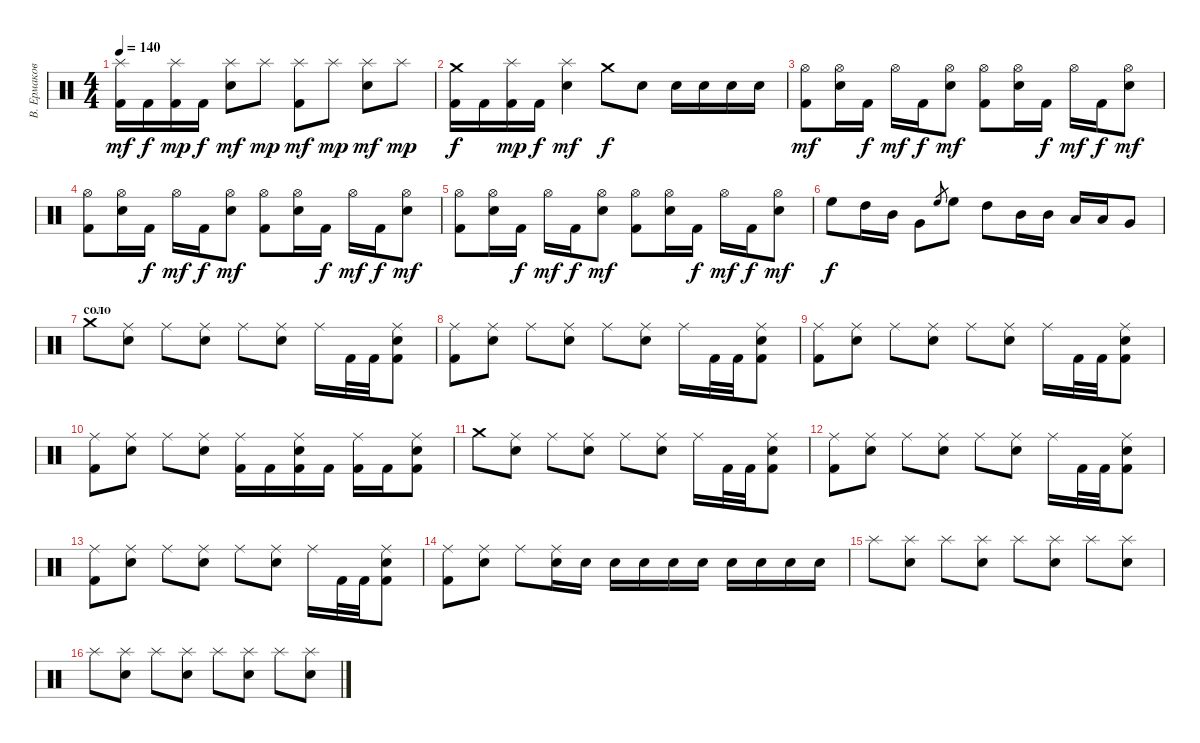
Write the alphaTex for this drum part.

\track ("В. Ермаков" "В. Ермаков") {instrument percussion}
\staff {score}
\articulation defaults
\ts (4 4)
\tempo 140
\clef neutral
\ks c
("Kick (hit) 2" "Splash (hit)").16{dy mf} "Kick (hit) 2".16{dy f} ("Kick (hit) 2" "Splash (hit)").16{dy mp} "Kick (hit) 2".16{dy f} ("Electric Snare (hit)" "Splash (hit)").8{dy mf} "Splash (hit)".8{dy mp} ("Kick (hit) 2" "Splash (hit)").8{dy mf} "Splash (hit)".8{dy mp} ("Electric Snare (hit)" "Splash (hit)").8{dy mf} "Splash (hit)".8{dy mp} |
("Kick (hit) 2" "Crash medium (hit)").16{dy f} "Kick (hit) 2".16 ("Kick (hit) 2" "Splash (hit)").16{dy mp} "Kick (hit) 2".16{dy f} ("Electric Snare (hit)" "Splash (hit)").4{dy mf} "Crash medium (hit)".8{dy f} "Electric Snare (hit)".8 "Electric Snare (hit)".16 "Electric Snare (hit)".16 "Electric Snare (hit)".16 "Electric Snare (hit)".16 |
("Hi-Hat (open)" "Kick (hit) 2").8{dy mf} ("Hi-Hat (open)" "Electric Snare (hit)").16 "Kick (hit) 2".16{dy f} "Hi-Hat (open)".16{dy mf} "Kick (hit) 2".16{dy f} ("Hi-Hat (open)" "Electric Snare (hit)").8{dy mf} ("Hi-Hat (open)" "Kick (hit) 2").8 ("Hi-Hat (open)" "Electric Snare (hit)").16 "Kick (hit) 2".16{dy f} "Hi-Hat (open)".16{dy mf} "Kick (hit) 2".16{dy f} ("Hi-Hat (open)" "Electric Snare (hit)").8{dy mf} |
("Hi-Hat (open)" "Kick (hit) 2").8 ("Hi-Hat (open)" "Electric Snare (hit)").16 "Kick (hit) 2".16{dy f} "Hi-Hat (open)".16{dy mf} "Kick (hit) 2".16{dy f} ("Hi-Hat (open)" "Electric Snare (hit)").8{dy mf} ("Hi-Hat (open)" "Kick (hit) 2").8 ("Hi-Hat (open)" "Electric Snare (hit)").16 "Kick (hit) 2".16{dy f} "Hi-Hat (open)".16{dy mf} "Kick (hit) 2".16{dy f} ("Hi-Hat (open)" "Electric Snare (hit)").8{dy mf} |
("Hi-Hat (open)" "Kick (hit) 2").8 ("Hi-Hat (open)" "Electric Snare (hit)").16 "Kick (hit) 2".16{dy f} "Hi-Hat (open)".16{dy mf} "Kick (hit) 2".16{dy f} ("Hi-Hat (open)" "Electric Snare (hit)").8{dy mf} ("Hi-Hat (open)" "Kick (hit) 2").8 ("Hi-Hat (open)" "Electric Snare (hit)").16 "Kick (hit) 2".16{dy f} "Hi-Hat (open)".16{dy mf} "Kick (hit) 2".16{dy f} ("Hi-Hat (open)" "Electric Snare (hit)").8{dy mf} |
"High Floor Tom (hit)".8{dy f} "High Tom (hit)".16 "Mid Tom (hit)".16 "Very Low Tom (hit)".8 "High Floor Tom (hit)".8{gr} "High Floor Tom (hit)".8 "High Tom (hit)".8 "Mid Tom (hit)".16 "Mid Tom (hit)".16 "Low Tom (hit)".16 "Low Tom (hit)".16 "Very Low Tom (hit)".8 |
\section ("" "соло")
"Crash medium (hit)".8 ("Electric Snare (hit)" "Ride (middle)").8 "Ride (middle)".8 ("Electric Snare (hit)" "Ride (middle)").8 "Ride (middle)".8 ("Electric Snare (hit)" "Ride (middle)").8 "Ride (middle)".16 "Kick (hit) 2".32 "Kick (hit) 2".32 ("Kick (hit) 2" "Electric Snare (hit)" "Ride (middle)").8 |
("Kick (hit) 2" "Ride (middle)").8 ("Electric Snare (hit)" "Ride (middle)").8 "Ride (middle)".8 ("Electric Snare (hit)" "Ride (middle)").8 "Ride (middle)".8 ("Electric Snare (hit)" "Ride (middle)").8 "Ride (middle)".16 "Kick (hit) 2".32 "Kick (hit) 2".32 ("Kick (hit) 2" "Electric Snare (hit)" "Ride (middle)").8 |
("Kick (hit) 2" "Ride (middle)").8 ("Electric Snare (hit)" "Ride (middle)").8 "Ride (middle)".8 ("Electric Snare (hit)" "Ride (middle)").8 "Ride (middle)".8 ("Electric Snare (hit)" "Ride (middle)").8 "Ride (middle)".16 "Kick (hit) 2".32 "Kick (hit) 2".32 ("Kick (hit) 2" "Electric Snare (hit)" "Ride (middle)").8 |
("Kick (hit) 2" "Ride (middle)").8 ("Electric Snare (hit)" "Ride (middle)").8 "Ride (middle)".8 ("Electric Snare (hit)" "Ride (middle)").8 ("Kick (hit) 2" "Ride (middle)").16 "Kick (hit) 2".16 ("Kick (hit) 2" "Electric Snare (hit)" "Ride (middle)").16 "Kick (hit) 2".16 ("Kick (hit) 2" "Ride (middle)").16 "Kick (hit) 2".16 ("Kick (hit) 2" "Electric Snare (hit)" "Ride (middle)").8 |
"Crash medium (hit)".8 ("Electric Snare (hit)" "Ride (middle)").8 "Ride (middle)".8 ("Electric Snare (hit)" "Ride (middle)").8 "Ride (middle)".8 ("Electric Snare (hit)" "Ride (middle)").8 "Ride (middle)".16 "Kick (hit) 2".32 "Kick (hit) 2".32 ("Kick (hit) 2" "Electric Snare (hit)" "Ride (middle)").8 |
("Kick (hit) 2" "Ride (middle)").8 ("Electric Snare (hit)" "Ride (middle)").8 "Ride (middle)".8 ("Electric Snare (hit)" "Ride (middle)").8 "Ride (middle)".8 ("Electric Snare (hit)" "Ride (middle)").8 "Ride (middle)".16 "Kick (hit) 2".32 "Kick (hit) 2".32 ("Kick (hit) 2" "Electric Snare (hit)" "Ride (middle)").8 |
("Kick (hit) 2" "Ride (middle)").8 ("Electric Snare (hit)" "Ride (middle)").8 "Ride (middle)".8 ("Electric Snare (hit)" "Ride (middle)").8 "Ride (middle)".8 ("Electric Snare (hit)" "Ride (middle)").8 "Ride (middle)".16 "Kick (hit) 2".32 "Kick (hit) 2".32 ("Kick (hit) 2" "Electric Snare (hit)" "Ride (middle)").8 |
("Kick (hit) 2" "Ride (middle)").8 ("Electric Snare (hit)" "Ride (middle)").8 "Ride (middle)".8 ("Electric Snare (hit)" "Ride (middle)").16 "Electric Snare (hit)".16 "Electric Snare (hit)".16 "Electric Snare (hit)".16 "Electric Snare (hit)".16 "Electric Snare (hit)".16 "Electric Snare (hit)".16 "Electric Snare (hit)".16 "Electric Snare (hit)".16 "Electric Snare (hit)".16 |
"Splash (hit)".8 ("Electric Snare (hit)" "Splash (hit)").8 "Splash (hit)".8 ("Electric Snare (hit)" "Splash (hit)").8 "Splash (hit)".8 ("Electric Snare (hit)" "Splash (hit)").8 "Splash (hit)".8 ("Electric Snare (hit)" "Splash (hit)").8 |
"Splash (hit)".8 ("Electric Snare (hit)" "Splash (hit)").8 "Splash (hit)".8 ("Electric Snare (hit)" "Splash (hit)").8 "Splash (hit)".8 ("Electric Snare (hit)" "Splash (hit)").8 "Splash (hit)".8 ("Electric Snare (hit)" "Splash (hit)").8
